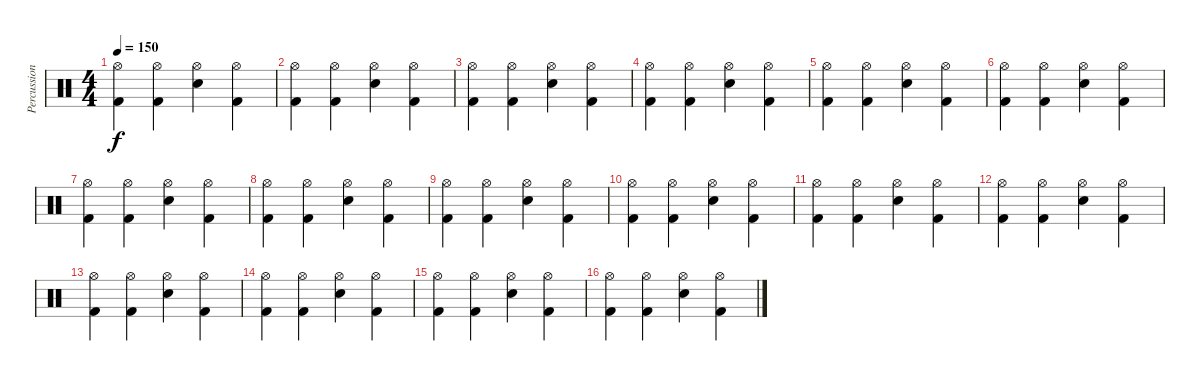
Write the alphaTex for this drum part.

\track ("Percussions" "Percussion") {instrument percussion}
\staff {score}
\articulation defaults
\ts (4 4)
\tempo 150
\clef neutral
\ks c
("Hi-Hat (open)" "Kick (hit) 2").4{dy f} ("Hi-Hat (open)" "Kick (hit) 2").4 ("Hi-Hat (open)" "Electric Snare (hit)").4 ("Hi-Hat (open)" "Kick (hit) 2").4 |
("Hi-Hat (open)" "Kick (hit) 2").4 ("Hi-Hat (open)" "Kick (hit) 2").4 ("Hi-Hat (open)" "Electric Snare (hit)").4 ("Hi-Hat (open)" "Kick (hit) 2").4 |
("Hi-Hat (open)" "Kick (hit) 2").4 ("Hi-Hat (open)" "Kick (hit) 2").4 ("Hi-Hat (open)" "Electric Snare (hit)").4 ("Hi-Hat (open)" "Kick (hit) 2").4 |
("Hi-Hat (open)" "Kick (hit) 2").4 ("Hi-Hat (open)" "Kick (hit) 2").4 ("Hi-Hat (open)" "Electric Snare (hit)").4 ("Hi-Hat (open)" "Kick (hit) 2").4 |
("Hi-Hat (open)" "Kick (hit) 2").4 ("Hi-Hat (open)" "Kick (hit) 2").4 ("Hi-Hat (open)" "Electric Snare (hit)").4 ("Hi-Hat (open)" "Kick (hit) 2").4 |
("Hi-Hat (open)" "Kick (hit) 2").4 ("Hi-Hat (open)" "Kick (hit) 2").4 ("Hi-Hat (open)" "Electric Snare (hit)").4 ("Hi-Hat (open)" "Kick (hit) 2").4 |
("Hi-Hat (open)" "Kick (hit) 2").4 ("Hi-Hat (open)" "Kick (hit) 2").4 ("Hi-Hat (open)" "Electric Snare (hit)").4 ("Hi-Hat (open)" "Kick (hit) 2").4 |
("Hi-Hat (open)" "Kick (hit) 2").4 ("Hi-Hat (open)" "Kick (hit) 2").4 ("Hi-Hat (open)" "Electric Snare (hit)").4 ("Hi-Hat (open)" "Kick (hit) 2").4 |
("Hi-Hat (open)" "Kick (hit) 2").4 ("Hi-Hat (open)" "Kick (hit) 2").4 ("Hi-Hat (open)" "Electric Snare (hit)").4 ("Hi-Hat (open)" "Kick (hit) 2").4 |
("Hi-Hat (open)" "Kick (hit) 2").4 ("Hi-Hat (open)" "Kick (hit) 2").4 ("Hi-Hat (open)" "Electric Snare (hit)").4 ("Hi-Hat (open)" "Kick (hit) 2").4 |
("Hi-Hat (open)" "Kick (hit) 2").4 ("Hi-Hat (open)" "Kick (hit) 2").4 ("Hi-Hat (open)" "Electric Snare (hit)").4 ("Hi-Hat (open)" "Kick (hit) 2").4 |
("Hi-Hat (open)" "Kick (hit) 2").4 ("Hi-Hat (open)" "Kick (hit) 2").4 ("Hi-Hat (open)" "Electric Snare (hit)").4 ("Hi-Hat (open)" "Kick (hit) 2").4 |
("Hi-Hat (open)" "Kick (hit) 2").4 ("Hi-Hat (open)" "Kick (hit) 2").4 ("Hi-Hat (open)" "Electric Snare (hit)").4 ("Hi-Hat (open)" "Kick (hit) 2").4 |
("Hi-Hat (open)" "Kick (hit) 2").4 ("Hi-Hat (open)" "Kick (hit) 2").4 ("Hi-Hat (open)" "Electric Snare (hit)").4 ("Hi-Hat (open)" "Kick (hit) 2").4 |
("Hi-Hat (open)" "Kick (hit) 2").4 ("Hi-Hat (open)" "Kick (hit) 2").4 ("Hi-Hat (open)" "Electric Snare (hit)").4 ("Hi-Hat (open)" "Kick (hit) 2").4 |
("Hi-Hat (open)" "Kick (hit) 2").4 ("Hi-Hat (open)" "Kick (hit) 2").4 ("Hi-Hat (open)" "Electric Snare (hit)").4 ("Hi-Hat (open)" "Kick (hit) 2").4
